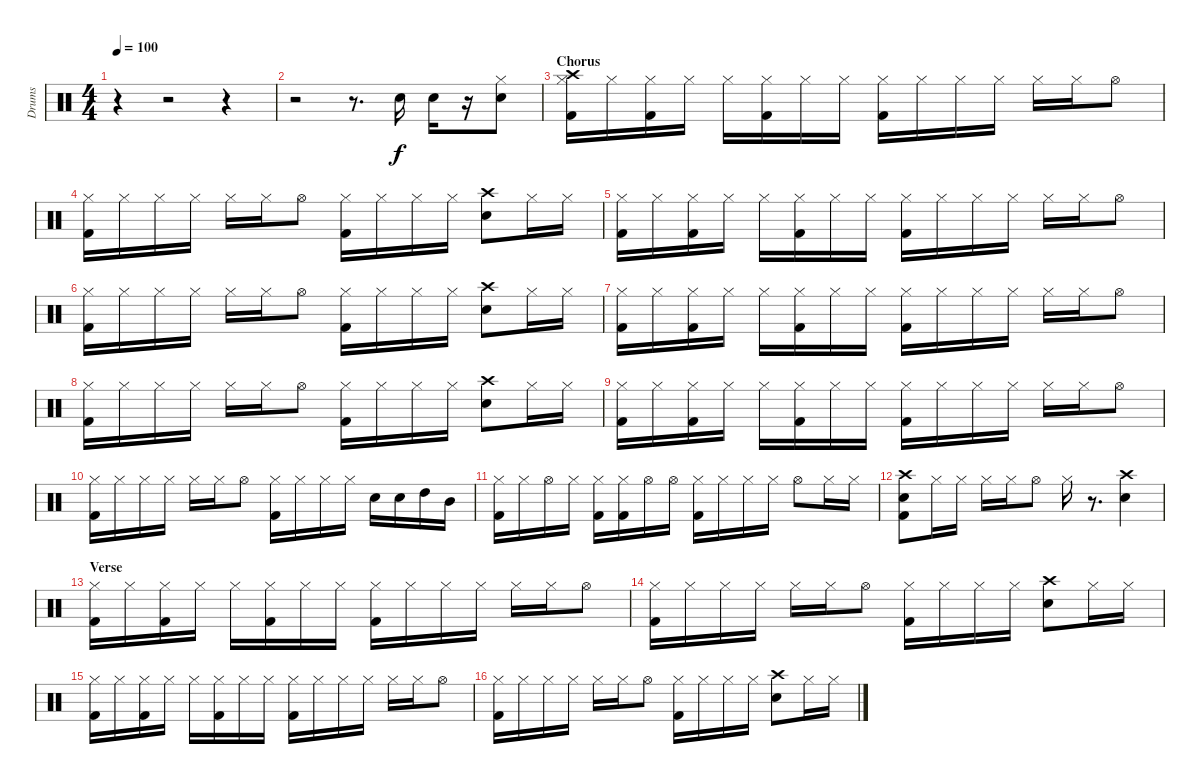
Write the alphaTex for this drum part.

\track ("Drums" "Drums") {instrument percussion}
\staff {score}
\articulation defaults
\ts (4 4)
\tempo 100
\clef neutral
\ks c
r.4{dy f} r.2 r.4 |
r.2 r.8{d} "Electric Snare (hit)".16 "Electric Snare (hit)".16 r.16 ("Hi-Hat (closed)" "Electric Snare (hit)").8 |
\section ("" "Chorus")
("Crash high (hit)" "Hi-Hat (closed)" "Kick (hit) 2").16 "Hi-Hat (closed)".16 ("Hi-Hat (closed)" "Kick (hit) 2").16 "Hi-Hat (closed)".16 "Hi-Hat (closed)".16 ("Hi-Hat (closed)" "Kick (hit) 2").16 "Hi-Hat (closed)".16 "Hi-Hat (closed)".16 ("Hi-Hat (closed)" "Kick (hit) 2").16 "Hi-Hat (closed)".16 "Hi-Hat (closed)".16 "Hi-Hat (closed)".16 "Hi-Hat (closed)".16 "Hi-Hat (closed)".16 "Hi-Hat (open)".8 |
("Hi-Hat (closed)" "Kick (hit) 2").16 "Hi-Hat (closed)".16 "Hi-Hat (closed)".16 "Hi-Hat (closed)".16 "Hi-Hat (closed)".16 "Hi-Hat (closed)".16 "Hi-Hat (open)".8 ("Hi-Hat (closed)" "Kick (hit) 2").16 "Hi-Hat (closed)".16 "Hi-Hat (closed)".16 "Hi-Hat (closed)".16 ("Crash high (hit)" "Electric Snare (hit)").8 "Hi-Hat (closed)".16 "Hi-Hat (closed)".16 |
("Hi-Hat (closed)" "Kick (hit) 2").16 "Hi-Hat (closed)".16 ("Hi-Hat (closed)" "Kick (hit) 2").16 "Hi-Hat (closed)".16 "Hi-Hat (closed)".16 ("Hi-Hat (closed)" "Kick (hit) 2").16 "Hi-Hat (closed)".16 "Hi-Hat (closed)".16 ("Hi-Hat (closed)" "Kick (hit) 2").16 "Hi-Hat (closed)".16 "Hi-Hat (closed)".16 "Hi-Hat (closed)".16 "Hi-Hat (closed)".16 "Hi-Hat (closed)".16 "Hi-Hat (open)".8 |
("Hi-Hat (closed)" "Kick (hit) 2").16 "Hi-Hat (closed)".16 "Hi-Hat (closed)".16 "Hi-Hat (closed)".16 "Hi-Hat (closed)".16 "Hi-Hat (closed)".16 "Hi-Hat (open)".8 ("Hi-Hat (closed)" "Kick (hit) 2").16 "Hi-Hat (closed)".16 "Hi-Hat (closed)".16 "Hi-Hat (closed)".16 ("Crash high (hit)" "Electric Snare (hit)").8 "Hi-Hat (closed)".16 "Hi-Hat (closed)".16 |
("Hi-Hat (closed)" "Kick (hit) 2").16 "Hi-Hat (closed)".16 ("Hi-Hat (closed)" "Kick (hit) 2").16 "Hi-Hat (closed)".16 "Hi-Hat (closed)".16 ("Hi-Hat (closed)" "Kick (hit) 2").16 "Hi-Hat (closed)".16 "Hi-Hat (closed)".16 ("Hi-Hat (closed)" "Kick (hit) 2").16 "Hi-Hat (closed)".16 "Hi-Hat (closed)".16 "Hi-Hat (closed)".16 "Hi-Hat (closed)".16 "Hi-Hat (closed)".16 "Hi-Hat (open)".8 |
("Hi-Hat (closed)" "Kick (hit) 2").16 "Hi-Hat (closed)".16 "Hi-Hat (closed)".16 "Hi-Hat (closed)".16 "Hi-Hat (closed)".16 "Hi-Hat (closed)".16 "Hi-Hat (open)".8 ("Hi-Hat (closed)" "Kick (hit) 2").16 "Hi-Hat (closed)".16 "Hi-Hat (closed)".16 "Hi-Hat (closed)".16 ("Crash high (hit)" "Electric Snare (hit)").8 "Hi-Hat (closed)".16 "Hi-Hat (closed)".16 |
("Hi-Hat (closed)" "Kick (hit) 2").16 "Hi-Hat (closed)".16 ("Hi-Hat (closed)" "Kick (hit) 2").16 "Hi-Hat (closed)".16 "Hi-Hat (closed)".16 ("Hi-Hat (closed)" "Kick (hit) 2").16 "Hi-Hat (closed)".16 "Hi-Hat (closed)".16 ("Hi-Hat (closed)" "Kick (hit) 2").16 "Hi-Hat (closed)".16 "Hi-Hat (closed)".16 "Hi-Hat (closed)".16 "Hi-Hat (closed)".16 "Hi-Hat (closed)".16 "Hi-Hat (open)".8 |
("Hi-Hat (closed)" "Kick (hit) 2").16 "Hi-Hat (closed)".16 "Hi-Hat (closed)".16 "Hi-Hat (closed)".16 "Hi-Hat (closed)".16 "Hi-Hat (closed)".16 "Hi-Hat (open)".8 ("Hi-Hat (closed)" "Kick (hit) 2").16 "Hi-Hat (closed)".16 "Hi-Hat (closed)".16 "Hi-Hat (closed)".16 "Electric Snare (hit)".16 "Electric Snare (hit)".16 "High Tom (hit)".16 "Mid Tom (hit)".16 |
("Hi-Hat (closed)" "Kick (hit) 2").16 "Hi-Hat (closed)".16 "Hi-Hat (open)".16 "Hi-Hat (closed)".16 ("Hi-Hat (closed)" "Kick (hit) 2").16 ("Hi-Hat (closed)" "Kick (hit) 2").16 "Hi-Hat (open)".16 "Hi-Hat (open)".16 ("Hi-Hat (closed)" "Kick (hit) 2").16 "Hi-Hat (closed)".16 "Hi-Hat (closed)".16 "Hi-Hat (closed)".16 "Hi-Hat (open)".8 "Hi-Hat (closed)".16 "Hi-Hat (closed)".16 |
("Electric Snare (hit)" "Crash high (hit)" "Kick (hit) 2").8 "Hi-Hat (closed)".16 "Hi-Hat (closed)".16 "Hi-Hat (closed)".16 "Hi-Hat (closed)".16 "Hi-Hat (open)".8 "Hi-Hat (closed)".16 r.8{d} ("Crash high (hit)" "Electric Snare (hit)").4 |
\section ("" "Verse")
("Hi-Hat (closed)" "Kick (hit) 2").16 "Hi-Hat (closed)".16 ("Hi-Hat (closed)" "Kick (hit) 2").16 "Hi-Hat (closed)".16 "Hi-Hat (closed)".16 ("Hi-Hat (closed)" "Kick (hit) 2").16 "Hi-Hat (closed)".16 "Hi-Hat (closed)".16 ("Hi-Hat (closed)" "Kick (hit) 2").16 "Hi-Hat (closed)".16 "Hi-Hat (closed)".16 "Hi-Hat (closed)".16 "Hi-Hat (closed)".16 "Hi-Hat (closed)".16 "Hi-Hat (open)".8 |
("Hi-Hat (closed)" "Kick (hit) 2").16 "Hi-Hat (closed)".16 "Hi-Hat (closed)".16 "Hi-Hat (closed)".16 "Hi-Hat (closed)".16 "Hi-Hat (closed)".16 "Hi-Hat (open)".8 ("Hi-Hat (closed)" "Kick (hit) 2").16 "Hi-Hat (closed)".16 "Hi-Hat (closed)".16 "Hi-Hat (closed)".16 ("Crash high (hit)" "Electric Snare (hit)").8 "Hi-Hat (closed)".16 "Hi-Hat (closed)".16 |
("Hi-Hat (closed)" "Kick (hit) 2").16 "Hi-Hat (closed)".16 ("Hi-Hat (closed)" "Kick (hit) 2").16 "Hi-Hat (closed)".16 "Hi-Hat (closed)".16 ("Hi-Hat (closed)" "Kick (hit) 2").16 "Hi-Hat (closed)".16 "Hi-Hat (closed)".16 ("Hi-Hat (closed)" "Kick (hit) 2").16 "Hi-Hat (closed)".16 "Hi-Hat (closed)".16 "Hi-Hat (closed)".16 "Hi-Hat (closed)".16 "Hi-Hat (closed)".16 "Hi-Hat (open)".8 |
("Hi-Hat (closed)" "Kick (hit) 2").16 "Hi-Hat (closed)".16 "Hi-Hat (closed)".16 "Hi-Hat (closed)".16 "Hi-Hat (closed)".16 "Hi-Hat (closed)".16 "Hi-Hat (open)".8 ("Hi-Hat (closed)" "Kick (hit) 2").16 "Hi-Hat (closed)".16 "Hi-Hat (closed)".16 "Hi-Hat (closed)".16 ("Crash high (hit)" "Electric Snare (hit)").8 "Hi-Hat (closed)".16 "Hi-Hat (closed)".16
